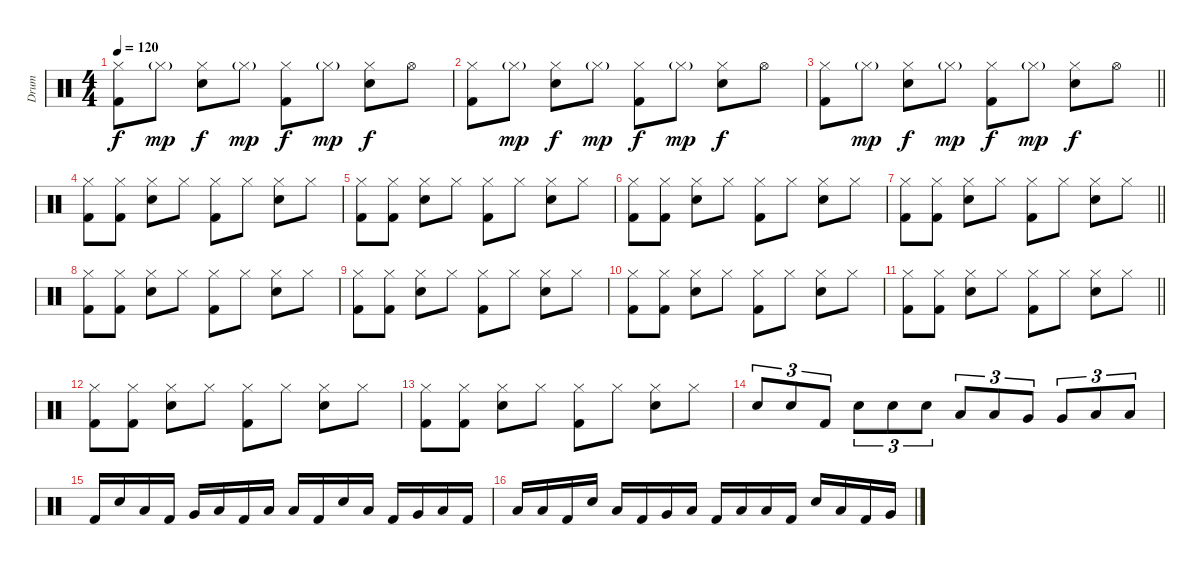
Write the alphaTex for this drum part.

\track ("Drum" "Drum") {instrument percussion}
\staff {score}
\articulation defaults
\ts (4 4)
\tempo 120
\clef neutral
\ks c
("Hi-Hat (closed)" "Kick (hit) 2").8{dy f} "Hi-Hat (closed)"{g}.8{dy mp} ("Hi-Hat (closed)" "Electric Snare (hit)").8{dy f} "Hi-Hat (closed)"{g}.8{dy mp} ("Hi-Hat (closed)" "Kick (hit) 2").8{dy f} "Hi-Hat (closed)"{g}.8{dy mp} ("Hi-Hat (closed)" "Electric Snare (hit)").8{dy f} "Hi-Hat (open)".8 |
("Hi-Hat (closed)" "Kick (hit) 2").8 "Hi-Hat (closed)"{g}.8{dy mp} ("Hi-Hat (closed)" "Electric Snare (hit)").8{dy f} "Hi-Hat (closed)"{g}.8{dy mp} ("Hi-Hat (closed)" "Kick (hit) 2").8{dy f} "Hi-Hat (closed)"{g}.8{dy mp} ("Hi-Hat (closed)" "Electric Snare (hit)").8{dy f} "Hi-Hat (open)".8 |
\barLineRight lightlight
("Hi-Hat (closed)" "Kick (hit) 2").8 "Hi-Hat (closed)"{g}.8{dy mp} ("Hi-Hat (closed)" "Electric Snare (hit)").8{dy f} "Hi-Hat (closed)"{g}.8{dy mp} ("Hi-Hat (closed)" "Kick (hit) 2").8{dy f} "Hi-Hat (closed)"{g}.8{dy mp} ("Hi-Hat (closed)" "Electric Snare (hit)").8{dy f} "Hi-Hat (open)".8 |
("Hi-Hat (closed)" "Kick (hit) 2").8 ("Hi-Hat (closed)" "Kick (hit) 2").8 ("Hi-Hat (closed)" "Electric Snare (hit)").8 "Hi-Hat (closed)".8 ("Hi-Hat (closed)" "Kick (hit) 2").8 "Hi-Hat (closed)".8 ("Hi-Hat (closed)" "Electric Snare (hit)").8 "Hi-Hat (closed)".8 |
("Hi-Hat (closed)" "Kick (hit) 2").8 ("Hi-Hat (closed)" "Kick (hit) 2").8 ("Hi-Hat (closed)" "Electric Snare (hit)").8 "Hi-Hat (closed)".8 ("Hi-Hat (closed)" "Kick (hit) 2").8 "Hi-Hat (closed)".8 ("Hi-Hat (closed)" "Electric Snare (hit)").8 "Hi-Hat (closed)".8 |
("Hi-Hat (closed)" "Kick (hit) 2").8 ("Hi-Hat (closed)" "Kick (hit) 2").8 ("Hi-Hat (closed)" "Electric Snare (hit)").8 "Hi-Hat (closed)".8 ("Hi-Hat (closed)" "Kick (hit) 2").8 "Hi-Hat (closed)".8 ("Hi-Hat (closed)" "Electric Snare (hit)").8 "Hi-Hat (closed)".8 |
\barLineRight lightlight
("Hi-Hat (closed)" "Kick (hit) 2").8 ("Hi-Hat (closed)" "Kick (hit) 2").8 ("Hi-Hat (closed)" "Electric Snare (hit)").8 "Hi-Hat (closed)".8 ("Hi-Hat (closed)" "Kick (hit) 2").8 "Hi-Hat (closed)".8 ("Hi-Hat (closed)" "Electric Snare (hit)").8 "Hi-Hat (closed)".8 |
("Hi-Hat (closed)" "Kick (hit) 2").8 ("Hi-Hat (closed)" "Kick (hit) 2").8 ("Hi-Hat (closed)" "Electric Snare (hit)").8 "Hi-Hat (closed)".8 ("Hi-Hat (closed)" "Kick (hit) 2").8 "Hi-Hat (closed)".8 ("Hi-Hat (closed)" "Electric Snare (hit)").8 "Hi-Hat (closed)".8 |
("Hi-Hat (closed)" "Kick (hit) 2").8 ("Hi-Hat (closed)" "Kick (hit) 2").8 ("Hi-Hat (closed)" "Electric Snare (hit)").8 "Hi-Hat (closed)".8 ("Hi-Hat (closed)" "Kick (hit) 2").8 "Hi-Hat (closed)".8 ("Hi-Hat (closed)" "Electric Snare (hit)").8 "Hi-Hat (closed)".8 |
("Hi-Hat (closed)" "Kick (hit) 2").8 ("Hi-Hat (closed)" "Kick (hit) 2").8 ("Hi-Hat (closed)" "Electric Snare (hit)").8 "Hi-Hat (closed)".8 ("Hi-Hat (closed)" "Kick (hit) 2").8 "Hi-Hat (closed)".8 ("Hi-Hat (closed)" "Electric Snare (hit)").8 "Hi-Hat (closed)".8 |
\barLineRight lightlight
("Hi-Hat (closed)" "Kick (hit) 2").8 ("Hi-Hat (closed)" "Kick (hit) 2").8 ("Hi-Hat (closed)" "Electric Snare (hit)").8 "Hi-Hat (closed)".8 ("Hi-Hat (closed)" "Kick (hit) 2").8 "Hi-Hat (closed)".8 ("Hi-Hat (closed)" "Electric Snare (hit)").8 "Hi-Hat (closed)".8 |
("Hi-Hat (closed)" "Kick (hit) 2").8 ("Hi-Hat (closed)" "Kick (hit) 2").8 ("Hi-Hat (closed)" "Electric Snare (hit)").8 "Hi-Hat (closed)".8 ("Hi-Hat (closed)" "Kick (hit) 2").8 "Hi-Hat (closed)".8 ("Hi-Hat (closed)" "Electric Snare (hit)").8 "Hi-Hat (closed)".8 |
("Hi-Hat (closed)" "Kick (hit) 2").8 ("Hi-Hat (closed)" "Kick (hit) 2").8 ("Hi-Hat (closed)" "Electric Snare (hit)").8 "Hi-Hat (closed)".8 ("Hi-Hat (closed)" "Kick (hit) 2").8 "Hi-Hat (closed)".8 ("Hi-Hat (closed)" "Electric Snare (hit)").8 "Hi-Hat (closed)".8 |
"Electric Snare (hit)".8{tu (3 2)} "Electric Snare (hit)".8{tu (3 2)} "Kick (hit) 2".8{tu (3 2)} "Electric Snare (hit)".8{tu (3 2)} "Electric Snare (hit)".8{tu (3 2)} "Electric Snare (hit)".8{tu (3 2)} "Low Tom (hit)".8{tu (3 2)} "Low Tom (hit)".8{tu (3 2)} "Very Low Tom (hit)".8{tu (3 2)} "Very Low Tom (hit)".8{tu (3 2)} "Low Floor Tom (hit)".8{tu (3 2)} "Low Floor Tom (hit)".8{tu (3 2)} |
"Kick (hit) 2".16 "Electric Snare (hit)".16 "Low Tom (hit)".16 "Kick (hit) 2".16 "Very Low Tom (hit)".16 "Low Tom (hit)".16 "Kick (hit) 2".16 "Low Floor Tom (hit)".16 "Low Tom (hit)".16 "Kick (hit) 2".16 "Electric Snare (hit)".16 "Low Tom (hit)".16 "Kick (hit) 2".16 "Very Low Tom (hit)".16 "Low Tom (hit)".16 "Kick (hit) 2".16 |
"Low Floor Tom (hit)".16 "Low Tom (hit)".16 "Kick (hit) 2".16 "Electric Snare (hit)".16 "Low Tom (hit)".16 "Kick (hit) 2".16 "Very Low Tom (hit)".16 "Low Tom (hit)".16 "Kick (hit) 2".16 "Low Floor Tom (hit)".16 "Low Tom (hit)".16 "Kick (hit) 2".16 "Electric Snare (hit)".16 "Low Tom (hit)".16 "Kick (hit) 2".16 "Very Low Tom (hit)".16
